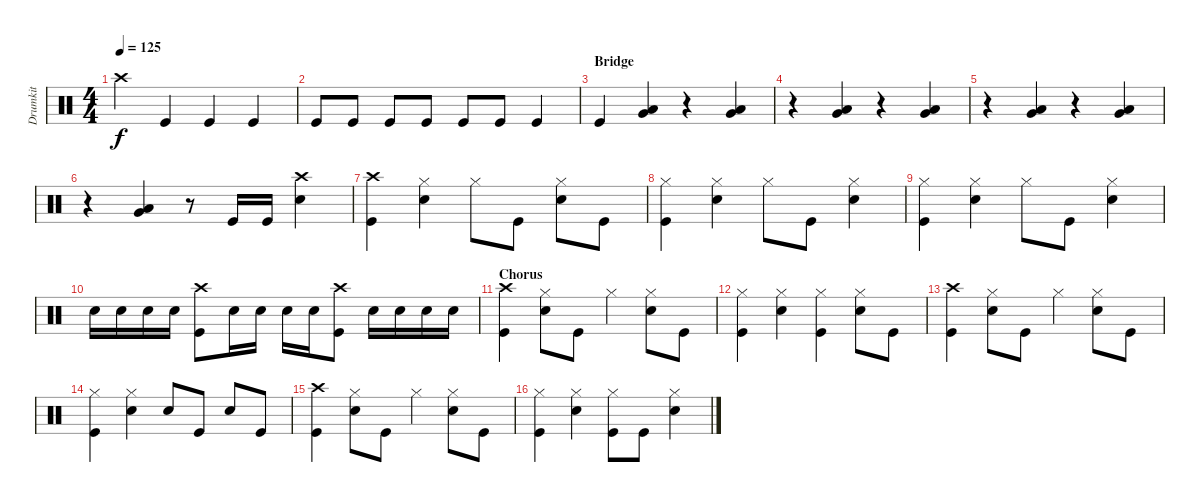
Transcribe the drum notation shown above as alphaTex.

\track ("Drumkit" "Drumkit") {instrument percussion}
\staff {score}
\articulation defaults
\ts (4 4)
\tempo 125
\clef neutral
\ks c "Crash high (hit)".4{dy f} "Kick (hit)".4 "Kick (hit)".4 "Kick (hit)".4
|
"Kick (hit)".8 "Kick (hit)".8 "Kick (hit)".8 "Kick (hit)".8 "Kick (hit)".8 "Kick (hit)".8 "Kick (hit)".4 |
\section ("" "Bridge")
"Kick (hit)".4 ("Low Tom (hit)" "Very Low Tom (hit)").4 r.4 ("Low Tom (hit)" "Very Low Tom (hit)").4 |
r.4 ("Low Tom (hit)" "Very Low Tom (hit)").4 r.4 ("Low Tom (hit)" "Very Low Tom (hit)").4 |
r.4 ("Low Tom (hit)" "Very Low Tom (hit)").4 r.4 ("Low Tom (hit)" "Very Low Tom (hit)").4 |
r.4 ("Low Tom (hit)" "Very Low Tom (hit)").4 r.8 "Kick (hit)".16 "Kick (hit)".16 ("Crash high (hit)" "Snare (hit) 2").4 |
("Crash high (hit)" "Kick (hit)").4 ("Hi-Hat (closed)" "Snare (hit) 2").4 "Hi-Hat (closed)".8 "Kick (hit)".8 ("Hi-Hat (closed)" "Snare (hit) 2").8 "Kick (hit)".8 |
("Hi-Hat (closed)" "Kick (hit)").4 ("Hi-Hat (closed)" "Snare (hit) 2").4 "Hi-Hat (closed)".8 "Kick (hit)".8 ("Hi-Hat (closed)" "Snare (hit) 2").4 |
("Hi-Hat (closed)" "Kick (hit)").4 ("Hi-Hat (closed)" "Snare (hit) 2").4 "Hi-Hat (closed)".8 "Kick (hit)".8 ("Hi-Hat (closed)" "Snare (hit) 2").4 |
"Snare (hit) 2".16 "Snare (hit) 2".16 "Snare (hit) 2".16 "Snare (hit) 2".16 ("Crash high (hit)" "Kick (hit)").8 "Snare (hit) 2".16 "Snare (hit) 2".16 "Snare (hit) 2".16 "Snare (hit) 2".16 ("Crash high (hit)" "Kick (hit)").8 "Snare (hit) 2".16 "Snare (hit) 2".16 "Snare (hit) 2".16 "Snare (hit) 2".16 |
\section ("" "Chorus")
("Crash high (hit)" "Kick (hit)").4 ("Hi-Hat (closed)" "Snare (hit) 2").8 "Kick (hit)".8 "Hi-Hat (closed)".4 ("Hi-Hat (closed)" "Snare (hit) 2").8 "Kick (hit)".8 |
("Hi-Hat (closed)" "Kick (hit)").4 ("Hi-Hat (closed)" "Snare (hit) 2").4 ("Hi-Hat (closed)" "Kick (hit)").4 ("Hi-Hat (closed)" "Snare (hit) 2").8 "Kick (hit)".8 |
("Crash high (hit)" "Kick (hit)").4 ("Hi-Hat (closed)" "Snare (hit) 2").8 "Kick (hit)".8 "Hi-Hat (closed)".4 ("Hi-Hat (closed)" "Snare (hit) 2").8 "Kick (hit)".8 |
("Hi-Hat (closed)" "Kick (hit)").4 ("Hi-Hat (closed)" "Snare (hit) 2").4 "Snare (hit) 2".8 "Kick (hit)".8 "Snare (hit) 2".8 "Kick (hit)".8 |
("Crash high (hit)" "Kick (hit)").4 ("Hi-Hat (closed)" "Snare (hit) 2").8 "Kick (hit)".8 "Hi-Hat (closed)".4 ("Hi-Hat (closed)" "Snare (hit) 2").8 "Kick (hit)".8 |
("Hi-Hat (closed)" "Kick (hit)").4 ("Hi-Hat (closed)" "Snare (hit) 2").4 ("Hi-Hat (closed)" "Kick (hit)").8 "Kick (hit)".8 ("Hi-Hat (closed)" "Snare (hit) 2").4
